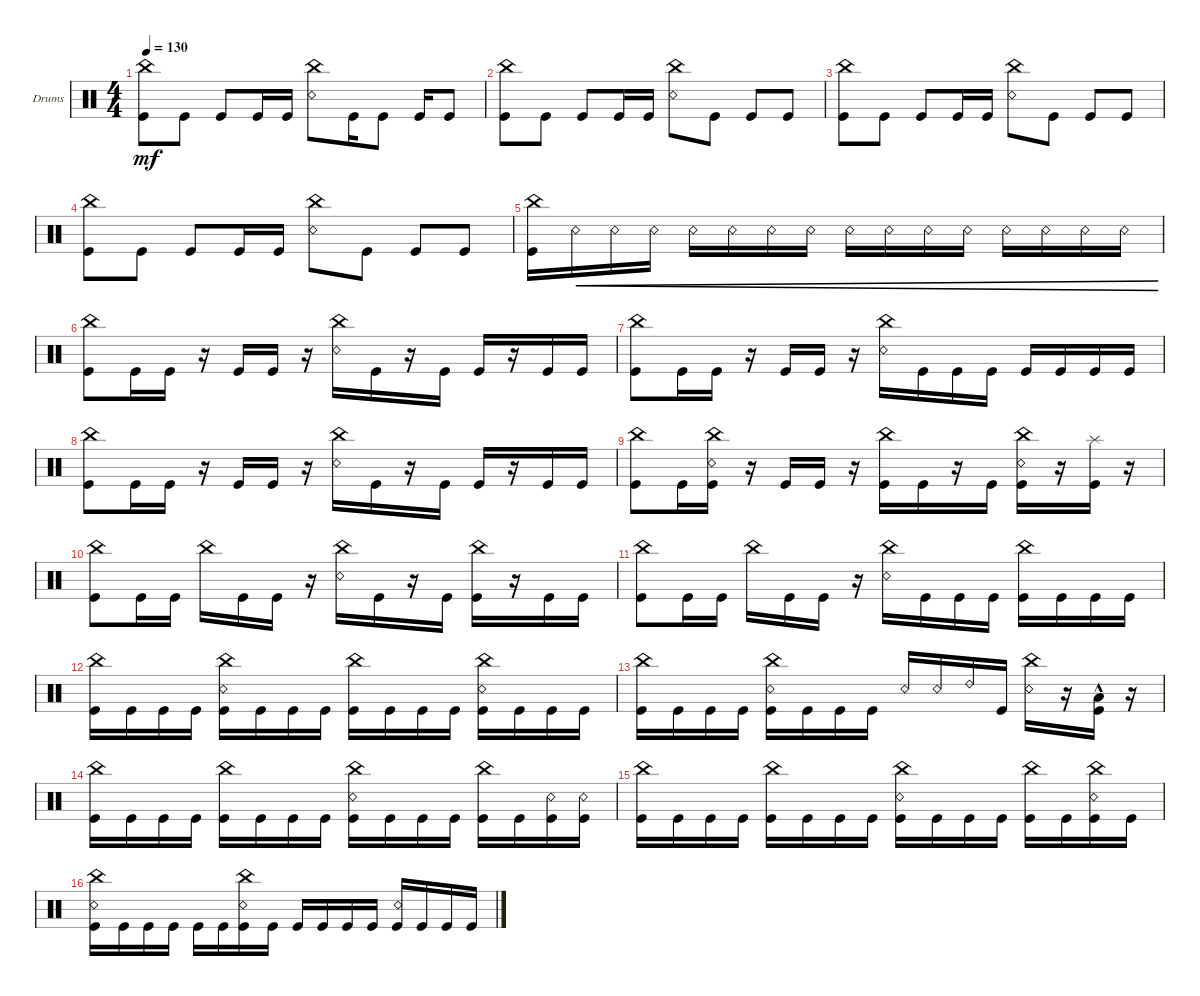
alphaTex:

\defaultSystemsLayout 4
\bracketExtendMode groupsimilarinstruments
\firstSystemTrackNameOrientation horizontal
\otherSystemsTrackNameOrientation horizontal
\track ("Drumkit" "Drums") {instrument percussion}
\staff {score}
\articulation defaults
\ts (4 4)
\tempo 130
\clef neutral
\ks c
("China (hit)" "Kick (hit)").8{dy mf} "Kick (hit)".8 "Kick (hit)".8 "Kick (hit)".16 "Kick (hit)".16 ("Snare (rim shot)" "China (hit)").8 "Kick (hit)".16 "Kick (hit)".8 "Kick (hit)".16 "Kick (hit)".8 |
("China (hit)" "Kick (hit)").8 "Kick (hit)".8 "Kick (hit)".8 "Kick (hit)".16 "Kick (hit)".16 ("Snare (rim shot)" "China (hit)").8 "Kick (hit)".8 "Kick (hit)".8 "Kick (hit)".8 |
("China (hit)" "Kick (hit)").8 "Kick (hit)".8 "Kick (hit)".8 "Kick (hit)".16 "Kick (hit)".16 ("Snare (rim shot)" "China (hit)").8 "Kick (hit)".8 "Kick (hit)".8 "Kick (hit)".8 |
("China (hit)" "Kick (hit)").8 "Kick (hit)".8 "Kick (hit)".8 "Kick (hit)".16 "Kick (hit)".16 ("Snare (rim shot)" "China (hit)").8 "Kick (hit)".8 "Kick (hit)".8 "Kick (hit)".8 |
("China (hit)" "Kick (hit)").16 "Snare (rim shot)".16{cre} "Snare (rim shot)".16{cre} "Snare (rim shot)".16{cre} "Snare (rim shot)".16{cre} "Snare (rim shot)".16{cre} "Snare (rim shot)".16{cre} "Snare (rim shot)".16{cre} "Snare (rim shot)".16{cre} "Snare (rim shot)".16{cre} "Snare (rim shot)".16{cre} "Snare (rim shot)".16{cre} "Snare (rim shot)".16{cre} "Snare (rim shot)".16{cre} "Snare (rim shot)".16{cre} "Snare (rim shot)".16{cre} |
("China (hit)" "Kick (hit)").8 "Kick (hit)".16 "Kick (hit)".16 r.16 "Kick (hit)".16 "Kick (hit)".16 r.16 ("Snare (rim shot)" "China (hit)").16 "Kick (hit)".16 r.16 "Kick (hit)".16 "Kick (hit)".16 r.16 "Kick (hit)".16 "Kick (hit)".16 |
("China (hit)" "Kick (hit)").8 "Kick (hit)".16 "Kick (hit)".16 r.16 "Kick (hit)".16 "Kick (hit)".16 r.16 ("Snare (rim shot)" "China (hit)").16 "Kick (hit)".16 "Kick (hit)".16 "Kick (hit)".16 "Kick (hit)".16 "Kick (hit)".16 "Kick (hit)".16 "Kick (hit)".16 |
("China (hit)" "Kick (hit)").8 "Kick (hit)".16 "Kick (hit)".16 r.16 "Kick (hit)".16 "Kick (hit)".16 r.16 ("Snare (rim shot)" "China (hit)").16 "Kick (hit)".16 r.16 "Kick (hit)".16 "Kick (hit)".16 r.16 "Kick (hit)".16 "Kick (hit)".16 |
("China (hit)" "Kick (hit)").8 "Kick (hit)".16 ("Kick (hit)" "Snare (rim shot)" "China (hit)").16 r.16 "Kick (hit)".16 "Kick (hit)".16 r.16 ("China (hit)" "Kick (hit)").16 "Kick (hit)".16 r.16 "Kick (hit)".16 ("Kick (hit)" "Snare (rim shot)" "China (hit)").16 r.16 ("Kick (hit)" "Splash (hit)").16 r.16 |
("China (hit)" "Kick (hit)").8 "Kick (hit)".16 "Kick (hit)".16 "China (hit)".16 "Kick (hit)".16 "Kick (hit)".16 r.16 ("Snare (rim shot)" "China (hit)").16 "Kick (hit)".16 r.16 "Kick (hit)".16 ("Kick (hit)" "China (hit)").16 r.16 "Kick (hit)".16 "Kick (hit)".16 |
("China (hit)" "Kick (hit)").8 "Kick (hit)".16 "Kick (hit)".16 "China (hit)".16 "Kick (hit)".16 "Kick (hit)".16 r.16 ("Snare (rim shot)" "China (hit)").16 "Kick (hit)".16 "Kick (hit)".16 "Kick (hit)".16 ("Kick (hit)" "China (hit)").16 "Kick (hit)".16 "Kick (hit)".16 "Kick (hit)".16 |
("Kick (hit)" "China (hit)").16 "Kick (hit)".16 "Kick (hit)".16 "Kick (hit)".16 ("Kick (hit)" "Snare (rim shot)" "China (hit)").16 "Kick (hit)".16 "Kick (hit)".16 "Kick (hit)".16 ("Kick (hit)" "China (hit)").16 "Kick (hit)".16 "Kick (hit)".16 "Kick (hit)".16 ("Kick (hit)" "China (hit)" "Snare (rim shot)").16 "Kick (hit)".16 "Kick (hit)".16 "Kick (hit)".16 |
("Kick (hit)" "China (hit)").16 "Kick (hit)".16 "Kick (hit)".16 "Kick (hit)".16 ("Kick (hit)" "Snare (rim shot)" "China (hit)").16 "Kick (hit)".16 "Kick (hit)".16 "Kick (hit)".16 "Snare (rim shot)".16 "Snare (rim shot)".16 "Ride (bell) 2".16 "Kick (hit)".16 ("China (hit)" "Snare (rim shot)").16 r.16 ("Low Tom (hit)" "Kick (hit)"{hac}).16 r.16 |
("Kick (hit)" "China (hit)").16 "Kick (hit)".16 "Kick (hit)".16 "Kick (hit)".16 ("Kick (hit)" "China (hit)").16 "Kick (hit)".16 "Kick (hit)".16 "Kick (hit)".16 ("Kick (hit)" "Snare (rim shot)" "China (hit)").16 "Kick (hit)".16 "Kick (hit)".16 "Kick (hit)".16 ("Kick (hit)" "China (hit)").16 "Kick (hit)".16 ("Snare (rim shot)" "Kick (hit)").16 ("Kick (hit)" "Snare (rim shot)").16 |
("Kick (hit)" "China (hit)").16 "Kick (hit)".16 "Kick (hit)".16 "Kick (hit)".16 ("Kick (hit)" "China (hit)").16 "Kick (hit)".16 "Kick (hit)".16 "Kick (hit)".16 ("Kick (hit)" "Snare (rim shot)" "China (hit)").16 "Kick (hit)".16 "Kick (hit)".16 "Kick (hit)".16 ("Kick (hit)" "China (hit)").16 "Kick (hit)".16 ("Snare (rim shot)" "Kick (hit)" "China (hit)").16 "Kick (hit)".16 |
("Kick (hit)" "Snare (rim shot)" "China (hit)").16 "Kick (hit)".16 "Kick (hit)".16 "Kick (hit)".16 "Kick (hit)".16 "Kick (hit)".16 ("Kick (hit)" "Snare (rim shot)" "China (hit)").16 "Kick (hit)".16 "Kick (hit)".16 "Kick (hit)".16 "Kick (hit)".16 "Kick (hit)".16 ("Kick (hit)" "Snare (rim shot)").16 "Kick (hit)".16 "Kick (hit)".16 "Kick (hit)".16
